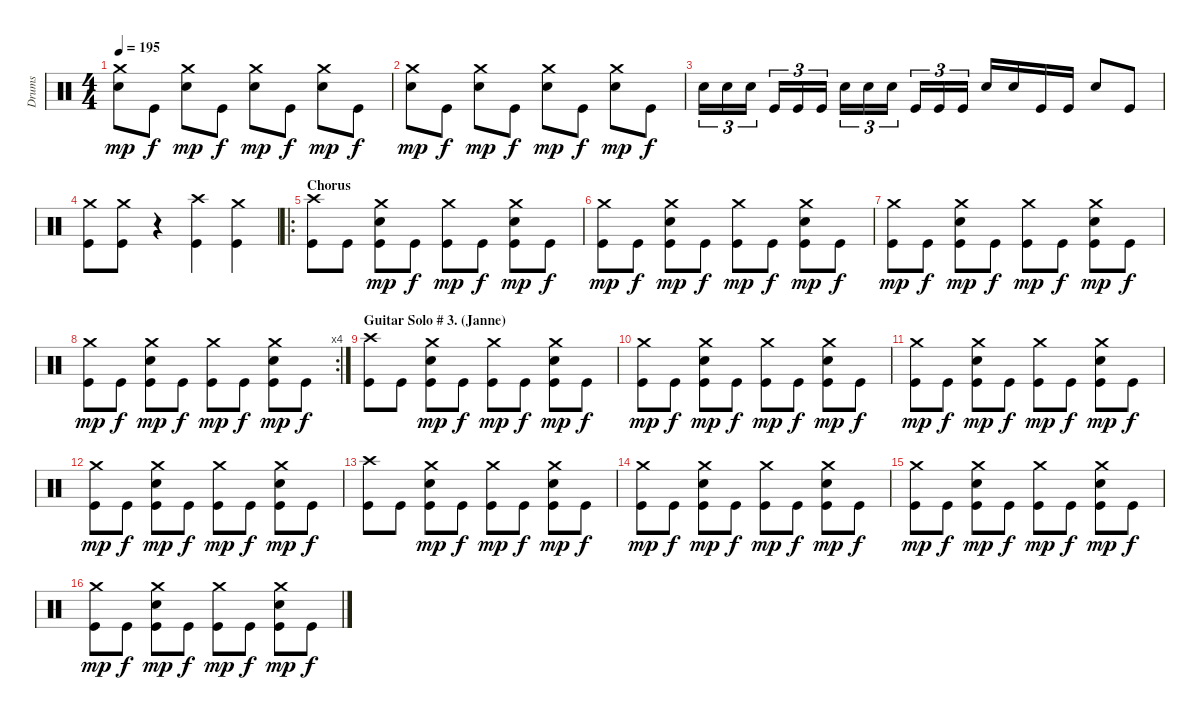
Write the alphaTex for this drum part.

\track ("Drums" "Drums") {instrument percussion}
\staff {score}
\articulation defaults
\ts (4 4)
\tempo 195
\clef neutral
\ks c
("Crash medium (hit)" "Electric Snare (hit)").8{dy mp} "Kick (hit)".8{dy f} ("Crash medium (hit)" "Electric Snare (hit)").8{dy mp} "Kick (hit)".8{dy f} ("Crash medium (hit)" "Electric Snare (hit)").8{dy mp} "Kick (hit)".8{dy f} ("Crash medium (hit)" "Electric Snare (hit)").8{dy mp} "Kick (hit)".8{dy f} |
("Crash medium (hit)" "Electric Snare (hit)").8{dy mp} "Kick (hit)".8{dy f} ("Crash medium (hit)" "Electric Snare (hit)").8{dy mp} "Kick (hit)".8{dy f} ("Crash medium (hit)" "Electric Snare (hit)").8{dy mp} "Kick (hit)".8{dy f} ("Crash medium (hit)" "Electric Snare (hit)").8{dy mp} "Kick (hit)".8{dy f} |
"Electric Snare (hit)".16{tu (3 2)} "Electric Snare (hit)".16{tu (3 2)} "Electric Snare (hit)".16{tu (3 2)} "Kick (hit)".16{tu (3 2)} "Kick (hit)".16{tu (3 2)} "Kick (hit)".16{tu (3 2)} "Electric Snare (hit)".16{tu (3 2)} "Electric Snare (hit)".16{tu (3 2)} "Electric Snare (hit)".16{tu (3 2)} "Kick (hit)".16{tu (3 2)} "Kick (hit)".16{tu (3 2)} "Kick (hit)".16{tu (3 2)} "Electric Snare (hit)".16 "Electric Snare (hit)".16 "Kick (hit)".16 "Kick (hit)".16 "Electric Snare (hit)".8 "Kick (hit)".8 |
("Crash medium (hit)" "Kick (hit)").8 ("Crash medium (hit)" "Kick (hit)").8 r.4 ("Crash high (hit)" "Kick (hit)").4 ("Crash medium (hit)" "Kick (hit)").4 |
\ro
\section ("" "Chorus")
("Crash high (hit)" "Kick (hit)").8 "Kick (hit)".8 ("Crash medium (hit)" "Electric Snare (hit)" "Kick (hit)").8{dy mp} "Kick (hit)".8{dy f} ("Crash medium (hit)" "Kick (hit)").8{dy mp} "Kick (hit)".8{dy f} ("Crash medium (hit)" "Electric Snare (hit)" "Kick (hit)").8{dy mp} "Kick (hit)".8{dy f} |
("Crash medium (hit)" "Kick (hit)").8{dy mp} "Kick (hit)".8{dy f} ("Crash medium (hit)" "Electric Snare (hit)" "Kick (hit)").8{dy mp} "Kick (hit)".8{dy f} ("Crash medium (hit)" "Kick (hit)").8{dy mp} "Kick (hit)".8{dy f} ("Crash medium (hit)" "Electric Snare (hit)" "Kick (hit)").8{dy mp} "Kick (hit)".8{dy f} |
("Crash medium (hit)" "Kick (hit)").8{dy mp} "Kick (hit)".8{dy f} ("Crash medium (hit)" "Electric Snare (hit)" "Kick (hit)").8{dy mp} "Kick (hit)".8{dy f} ("Crash medium (hit)" "Kick (hit)").8{dy mp} "Kick (hit)".8{dy f} ("Crash medium (hit)" "Electric Snare (hit)" "Kick (hit)").8{dy mp} "Kick (hit)".8{dy f} |
\rc 4
("Crash medium (hit)" "Kick (hit)").8{dy mp} "Kick (hit)".8{dy f} ("Crash medium (hit)" "Electric Snare (hit)" "Kick (hit)").8{dy mp} "Kick (hit)".8{dy f} ("Crash medium (hit)" "Kick (hit)").8{dy mp} "Kick (hit)".8{dy f} ("Crash medium (hit)" "Electric Snare (hit)" "Kick (hit)").8{dy mp} "Kick (hit)".8{dy f} |
\section ("" "Guitar Solo # 3. (Janne)")
("Crash high (hit)" "Kick (hit)").8 "Kick (hit)".8 ("Crash medium (hit)" "Electric Snare (hit)" "Kick (hit)").8{dy mp} "Kick (hit)".8{dy f} ("Crash medium (hit)" "Kick (hit)").8{dy mp} "Kick (hit)".8{dy f} ("Crash medium (hit)" "Electric Snare (hit)" "Kick (hit)").8{dy mp} "Kick (hit)".8{dy f} |
("Crash medium (hit)" "Kick (hit)").8{dy mp} "Kick (hit)".8{dy f} ("Crash medium (hit)" "Electric Snare (hit)" "Kick (hit)").8{dy mp} "Kick (hit)".8{dy f} ("Crash medium (hit)" "Kick (hit)").8{dy mp} "Kick (hit)".8{dy f} ("Crash medium (hit)" "Electric Snare (hit)" "Kick (hit)").8{dy mp} "Kick (hit)".8{dy f} |
("Crash medium (hit)" "Kick (hit)").8{dy mp} "Kick (hit)".8{dy f} ("Crash medium (hit)" "Electric Snare (hit)" "Kick (hit)").8{dy mp} "Kick (hit)".8{dy f} ("Crash medium (hit)" "Kick (hit)").8{dy mp} "Kick (hit)".8{dy f} ("Crash medium (hit)" "Electric Snare (hit)" "Kick (hit)").8{dy mp} "Kick (hit)".8{dy f} |
("Crash medium (hit)" "Kick (hit)").8{dy mp} "Kick (hit)".8{dy f} ("Crash medium (hit)" "Electric Snare (hit)" "Kick (hit)").8{dy mp} "Kick (hit)".8{dy f} ("Crash medium (hit)" "Kick (hit)").8{dy mp} "Kick (hit)".8{dy f} ("Crash medium (hit)" "Electric Snare (hit)" "Kick (hit)").8{dy mp} "Kick (hit)".8{dy f} |
("Crash high (hit)" "Kick (hit)").8 "Kick (hit)".8 ("Crash medium (hit)" "Electric Snare (hit)" "Kick (hit)").8{dy mp} "Kick (hit)".8{dy f} ("Crash medium (hit)" "Kick (hit)").8{dy mp} "Kick (hit)".8{dy f} ("Crash medium (hit)" "Electric Snare (hit)" "Kick (hit)").8{dy mp} "Kick (hit)".8{dy f} |
("Crash medium (hit)" "Kick (hit)").8{dy mp} "Kick (hit)".8{dy f} ("Crash medium (hit)" "Electric Snare (hit)" "Kick (hit)").8{dy mp} "Kick (hit)".8{dy f} ("Crash medium (hit)" "Kick (hit)").8{dy mp} "Kick (hit)".8{dy f} ("Crash medium (hit)" "Electric Snare (hit)" "Kick (hit)").8{dy mp} "Kick (hit)".8{dy f} |
("Crash medium (hit)" "Kick (hit)").8{dy mp} "Kick (hit)".8{dy f} ("Crash medium (hit)" "Electric Snare (hit)" "Kick (hit)").8{dy mp} "Kick (hit)".8{dy f} ("Crash medium (hit)" "Kick (hit)").8{dy mp} "Kick (hit)".8{dy f} ("Crash medium (hit)" "Electric Snare (hit)" "Kick (hit)").8{dy mp} "Kick (hit)".8{dy f} |
("Crash medium (hit)" "Kick (hit)").8{dy mp} "Kick (hit)".8{dy f} ("Crash medium (hit)" "Electric Snare (hit)" "Kick (hit)").8{dy mp} "Kick (hit)".8{dy f} ("Crash medium (hit)" "Kick (hit)").8{dy mp} "Kick (hit)".8{dy f} ("Crash medium (hit)" "Electric Snare (hit)" "Kick (hit)").8{dy mp} "Kick (hit)".8{dy f}
